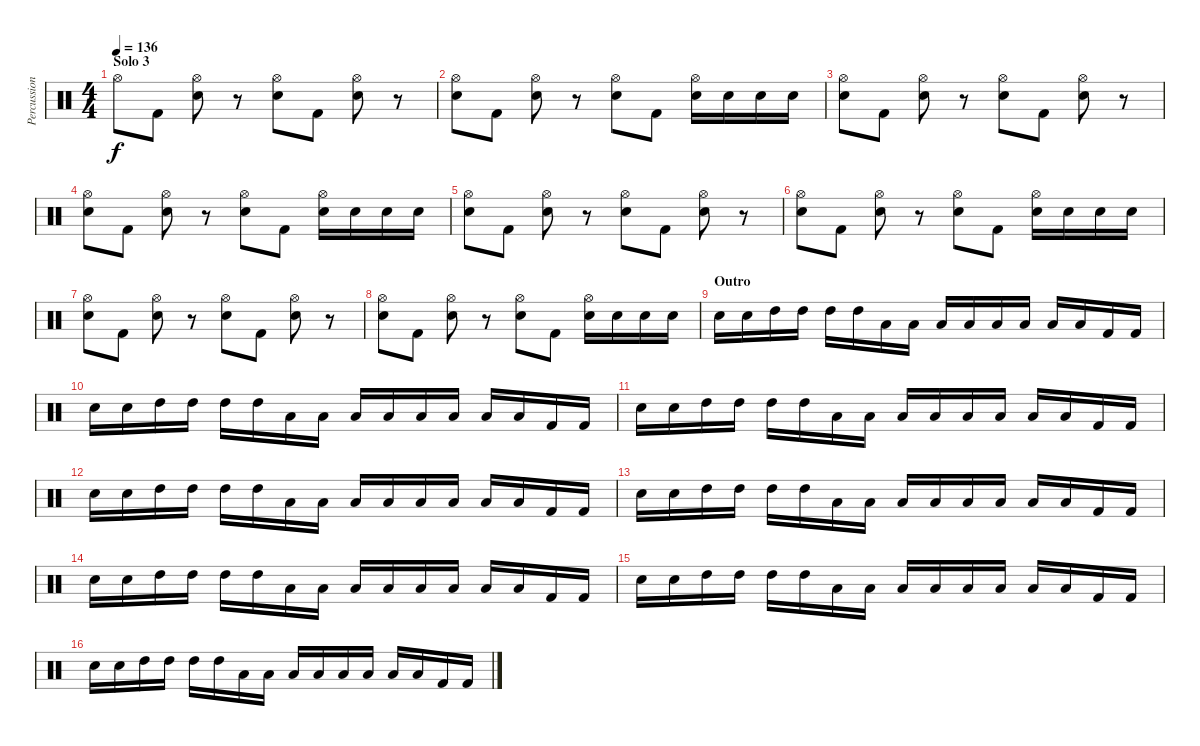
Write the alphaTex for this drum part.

\track ("Percussions" "Percussion") {instrument percussion}
\staff {score}
\articulation defaults
\ts (4 4)
\section ("" "Solo 3")
\tempo 136
\clef neutral
\ks c "Hi-Hat (open)".8{dy f} "Kick (hit) 2".8
("Hi-Hat (open)" "Snare (hit) 2").8 r.8 ("Hi-Hat (open)" "Snare (hit) 2").8 "Kick (hit) 2".8 ("Hi-Hat (open)" "Snare (hit) 2").8 r.8 |
("Hi-Hat (open)" "Snare (hit) 2").8 "Kick (hit) 2".8 ("Hi-Hat (open)" "Snare (hit) 2").8 r.8 ("Hi-Hat (open)" "Snare (hit) 2").8 "Kick (hit) 2".8 ("Hi-Hat (open)" "Snare (hit) 2").16 "Snare (hit) 2".16 "Snare (hit) 2".16 "Snare (hit) 2".16 |
("Hi-Hat (open)" "Snare (hit) 2").8 "Kick (hit) 2".8 ("Hi-Hat (open)" "Snare (hit) 2").8 r.8 ("Hi-Hat (open)" "Snare (hit) 2").8 "Kick (hit) 2".8 ("Hi-Hat (open)" "Snare (hit) 2").8 r.8 |
("Hi-Hat (open)" "Snare (hit) 2").8 "Kick (hit) 2".8 ("Hi-Hat (open)" "Snare (hit) 2").8 r.8 ("Hi-Hat (open)" "Snare (hit) 2").8 "Kick (hit) 2".8 ("Hi-Hat (open)" "Snare (hit) 2").16 "Snare (hit) 2".16 "Snare (hit) 2".16 "Snare (hit) 2".16 |
("Hi-Hat (open)" "Snare (hit) 2").8 "Kick (hit) 2".8 ("Hi-Hat (open)" "Snare (hit) 2").8 r.8 ("Hi-Hat (open)" "Snare (hit) 2").8 "Kick (hit) 2".8 ("Hi-Hat (open)" "Snare (hit) 2").8 r.8 |
("Hi-Hat (open)" "Snare (hit) 2").8 "Kick (hit) 2".8 ("Hi-Hat (open)" "Snare (hit) 2").8 r.8 ("Hi-Hat (open)" "Snare (hit) 2").8 "Kick (hit) 2".8 ("Hi-Hat (open)" "Snare (hit) 2").16 "Snare (hit) 2".16 "Snare (hit) 2".16 "Snare (hit) 2".16 |
("Hi-Hat (open)" "Snare (hit) 2").8 "Kick (hit) 2".8 ("Hi-Hat (open)" "Snare (hit) 2").8 r.8 ("Hi-Hat (open)" "Snare (hit) 2").8 "Kick (hit) 2".8 ("Hi-Hat (open)" "Snare (hit) 2").8 r.8 |
("Hi-Hat (open)" "Snare (hit) 2").8 "Kick (hit) 2".8 ("Hi-Hat (open)" "Snare (hit) 2").8 r.8 ("Hi-Hat (open)" "Snare (hit) 2").8 "Kick (hit) 2".8 ("Hi-Hat (open)" "Snare (hit) 2").16 "Snare (hit) 2".16 "Snare (hit) 2".16 "Snare (hit) 2".16 |
\section ("" "Outro")
"Snare (hit) 2".16 "Snare (hit) 2".16 "High Tom (hit)".16 "High Tom (hit)".16 "High Tom (hit)".16 "High Tom (hit)".16 "Low Tom (hit)".16 "Low Tom (hit)".16 "Low Tom (hit)".16 "Low Tom (hit)".16 "Low Floor Tom (hit)".16 "Low Floor Tom (hit)".16 "Low Floor Tom (hit)".16 "Low Floor Tom (hit)".16 "Kick (hit) 2".16 "Kick (hit) 2".16 |
"Snare (hit) 2".16 "Snare (hit) 2".16 "High Tom (hit)".16 "High Tom (hit)".16 "High Tom (hit)".16 "High Tom (hit)".16 "Low Tom (hit)".16 "Low Tom (hit)".16 "Low Tom (hit)".16 "Low Tom (hit)".16 "Low Floor Tom (hit)".16 "Low Floor Tom (hit)".16 "Low Floor Tom (hit)".16 "Low Floor Tom (hit)".16 "Kick (hit) 2".16 "Kick (hit) 2".16 |
"Snare (hit) 2".16 "Snare (hit) 2".16 "High Tom (hit)".16 "High Tom (hit)".16 "High Tom (hit)".16 "High Tom (hit)".16 "Low Tom (hit)".16 "Low Tom (hit)".16 "Low Tom (hit)".16 "Low Tom (hit)".16 "Low Floor Tom (hit)".16 "Low Floor Tom (hit)".16 "Low Floor Tom (hit)".16 "Low Floor Tom (hit)".16 "Kick (hit) 2".16 "Kick (hit) 2".16 |
"Snare (hit) 2".16 "Snare (hit) 2".16 "High Tom (hit)".16 "High Tom (hit)".16 "High Tom (hit)".16 "High Tom (hit)".16 "Low Tom (hit)".16 "Low Tom (hit)".16 "Low Tom (hit)".16 "Low Tom (hit)".16 "Low Floor Tom (hit)".16 "Low Floor Tom (hit)".16 "Low Floor Tom (hit)".16 "Low Floor Tom (hit)".16 "Kick (hit) 2".16 "Kick (hit) 2".16 |
"Snare (hit) 2".16 "Snare (hit) 2".16 "High Tom (hit)".16 "High Tom (hit)".16 "High Tom (hit)".16 "High Tom (hit)".16 "Low Tom (hit)".16 "Low Tom (hit)".16 "Low Tom (hit)".16 "Low Tom (hit)".16 "Low Floor Tom (hit)".16 "Low Floor Tom (hit)".16 "Low Floor Tom (hit)".16 "Low Floor Tom (hit)".16 "Kick (hit) 2".16 "Kick (hit) 2".16 |
"Snare (hit) 2".16 "Snare (hit) 2".16 "High Tom (hit)".16 "High Tom (hit)".16 "High Tom (hit)".16 "High Tom (hit)".16 "Low Tom (hit)".16 "Low Tom (hit)".16 "Low Tom (hit)".16 "Low Tom (hit)".16 "Low Floor Tom (hit)".16 "Low Floor Tom (hit)".16 "Low Floor Tom (hit)".16 "Low Floor Tom (hit)".16 "Kick (hit) 2".16 "Kick (hit) 2".16 |
"Snare (hit) 2".16 "Snare (hit) 2".16 "High Tom (hit)".16 "High Tom (hit)".16 "High Tom (hit)".16 "High Tom (hit)".16 "Low Tom (hit)".16 "Low Tom (hit)".16 "Low Tom (hit)".16 "Low Tom (hit)".16 "Low Floor Tom (hit)".16 "Low Floor Tom (hit)".16 "Low Floor Tom (hit)".16 "Low Floor Tom (hit)".16 "Kick (hit) 2".16 "Kick (hit) 2".16 |
"Snare (hit) 2".16 "Snare (hit) 2".16 "High Tom (hit)".16 "High Tom (hit)".16 "High Tom (hit)".16 "High Tom (hit)".16 "Low Tom (hit)".16 "Low Tom (hit)".16 "Low Tom (hit)".16 "Low Tom (hit)".16 "Low Floor Tom (hit)".16 "Low Floor Tom (hit)".16 "Low Floor Tom (hit)".16 "Low Floor Tom (hit)".16 "Kick (hit) 2".16 "Kick (hit) 2".16
